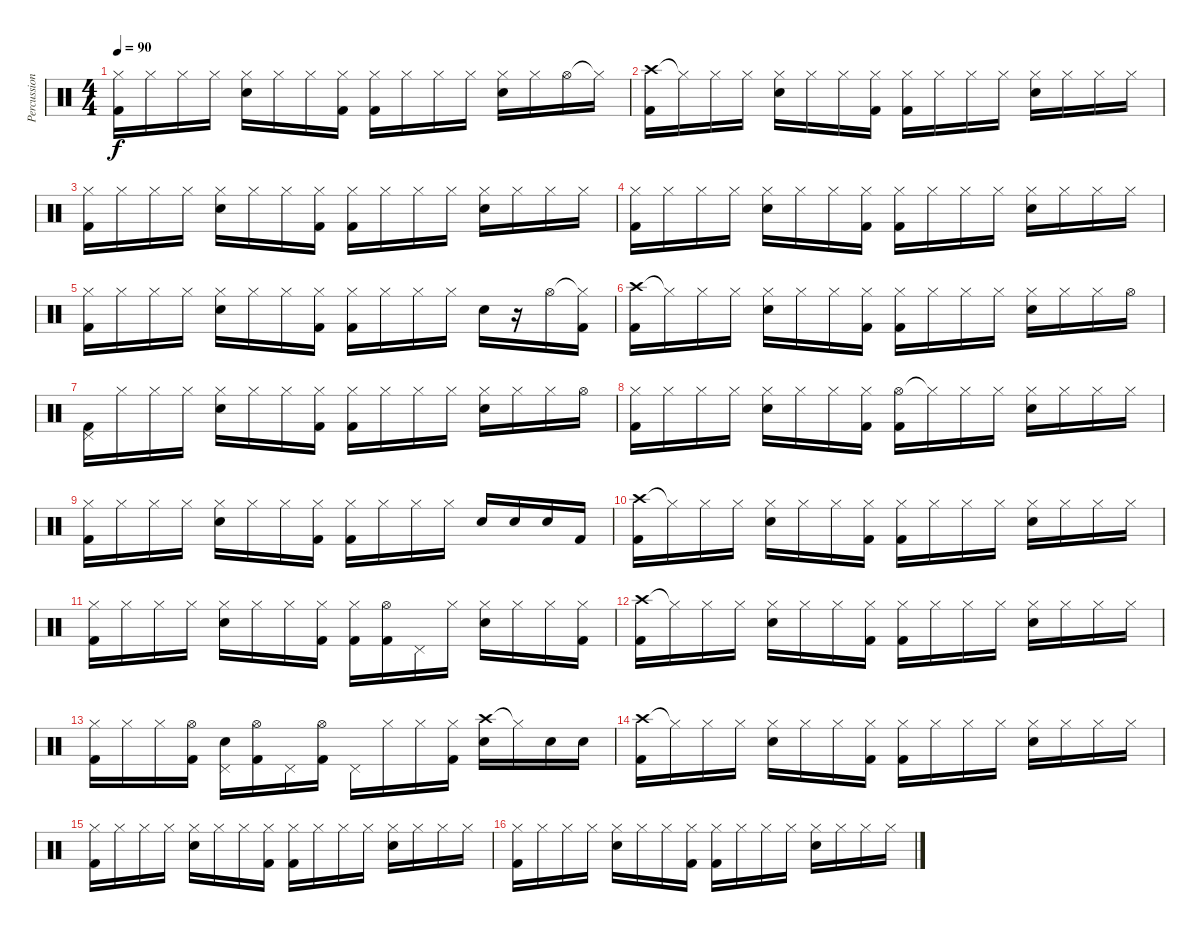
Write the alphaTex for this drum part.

\track ("Percussion" "Percussion") {instrument percussion}
\staff {score}
\articulation defaults
\ts (4 4)
\tempo 90
\clef neutral
\ks c
("Hi-Hat (closed)" "Kick (hit) 2").16{dy f} "Hi-Hat (closed)".16 "Hi-Hat (closed)".16 "Hi-Hat (closed)".16 ("Hi-Hat (closed)" "Electric Snare (hit)").16 "Hi-Hat (closed)".16 "Hi-Hat (closed)".16 ("Hi-Hat (closed)" "Kick (hit) 2").16 ("Hi-Hat (closed)" "Kick (hit) 2").16 "Hi-Hat (closed)".16 "Hi-Hat (closed)".16 "Hi-Hat (closed)".16 ("Hi-Hat (closed)" "Electric Snare (hit)").16 "Hi-Hat (closed)".16 "Hi-Hat (open)".16 "Hi-Hat (closed)"{t}.16 |
("Crash high (hit)" "Kick (hit) 2").16 "Hi-Hat (closed)"{t}.16 "Hi-Hat (closed)".16 "Hi-Hat (closed)".16 ("Hi-Hat (closed)" "Electric Snare (hit)").16 "Hi-Hat (closed)".16 "Hi-Hat (closed)".16 ("Hi-Hat (closed)" "Kick (hit) 2").16 ("Hi-Hat (closed)" "Kick (hit) 2").16 "Hi-Hat (closed)".16 "Hi-Hat (closed)".16 "Hi-Hat (closed)".16 ("Hi-Hat (closed)" "Electric Snare (hit)").16 "Hi-Hat (closed)".16 "Hi-Hat (closed)".16 "Hi-Hat (closed)".16 |
("Hi-Hat (closed)" "Kick (hit) 2").16 "Hi-Hat (closed)".16 "Hi-Hat (closed)".16 "Hi-Hat (closed)".16 ("Hi-Hat (closed)" "Electric Snare (hit)").16 "Hi-Hat (closed)".16 "Hi-Hat (closed)".16 ("Hi-Hat (closed)" "Kick (hit) 2").16 ("Hi-Hat (closed)" "Kick (hit) 2").16 "Hi-Hat (closed)".16 "Hi-Hat (closed)".16 "Hi-Hat (closed)".16 ("Hi-Hat (closed)" "Electric Snare (hit)").16 "Hi-Hat (closed)".16 "Hi-Hat (closed)".16 "Hi-Hat (closed)".16 |
("Hi-Hat (closed)" "Kick (hit) 2").16 "Hi-Hat (closed)".16 "Hi-Hat (closed)".16 "Hi-Hat (closed)".16 ("Hi-Hat (closed)" "Electric Snare (hit)").16 "Hi-Hat (closed)".16 "Hi-Hat (closed)".16 ("Hi-Hat (closed)" "Kick (hit) 2").16 ("Hi-Hat (closed)" "Kick (hit) 2").16 "Hi-Hat (closed)".16 "Hi-Hat (closed)".16 "Hi-Hat (closed)".16 ("Hi-Hat (closed)" "Electric Snare (hit)").16 "Hi-Hat (closed)".16 "Hi-Hat (closed)".16 "Hi-Hat (closed)".16 |
("Hi-Hat (closed)" "Kick (hit) 2").16 "Hi-Hat (closed)".16 "Hi-Hat (closed)".16 "Hi-Hat (closed)".16 ("Hi-Hat (closed)" "Electric Snare (hit)").16 "Hi-Hat (closed)".16 "Hi-Hat (closed)".16 ("Hi-Hat (closed)" "Kick (hit) 2").16 ("Hi-Hat (closed)" "Kick (hit) 2").16 "Hi-Hat (closed)".16 "Hi-Hat (closed)".16 "Hi-Hat (closed)".16 "Electric Snare (hit)".16 r.16 "Hi-Hat (open)".16 ("Hi-Hat (closed)"{t} "Kick (hit) 2").16 |
("Crash high (hit)" "Kick (hit) 2").16 "Hi-Hat (closed)"{t}.16 "Hi-Hat (closed)".16 "Hi-Hat (closed)".16 ("Hi-Hat (closed)" "Electric Snare (hit)").16 "Hi-Hat (closed)".16 "Hi-Hat (closed)".16 ("Hi-Hat (closed)" "Kick (hit) 2").16 ("Hi-Hat (closed)" "Kick (hit) 2").16 "Hi-Hat (closed)".16 "Hi-Hat (closed)".16 "Hi-Hat (closed)".16 ("Hi-Hat (closed)" "Electric Snare (hit)").16 "Hi-Hat (closed)".16 "Hi-Hat (closed)".16 "Hi-Hat (open)".16 |
("Pedal Hi-Hat (hit)" "Kick (hit) 2").16 "Hi-Hat (closed)".16 "Hi-Hat (closed)".16 "Hi-Hat (closed)".16 ("Hi-Hat (closed)" "Electric Snare (hit)").16 "Hi-Hat (closed)".16 "Hi-Hat (closed)".16 ("Hi-Hat (closed)" "Kick (hit) 2").16 ("Hi-Hat (closed)" "Kick (hit) 2").16 "Hi-Hat (closed)".16 "Hi-Hat (closed)".16 "Hi-Hat (closed)".16 ("Hi-Hat (closed)" "Electric Snare (hit)").16 "Hi-Hat (closed)".16 "Hi-Hat (closed)".16 "Hi-Hat (open)".16 |
("Hi-Hat (closed)" "Kick (hit) 2").16 "Hi-Hat (closed)".16 "Hi-Hat (closed)".16 "Hi-Hat (closed)".16 ("Hi-Hat (closed)" "Electric Snare (hit)").16 "Hi-Hat (closed)".16 "Hi-Hat (closed)".16 ("Hi-Hat (closed)" "Kick (hit) 2").16 ("Hi-Hat (open)" "Kick (hit) 2").16 "Hi-Hat (closed)"{t}.16 "Hi-Hat (closed)".16 "Hi-Hat (closed)".16 ("Hi-Hat (closed)" "Electric Snare (hit)").16 "Hi-Hat (closed)".16 "Hi-Hat (closed)".16 "Hi-Hat (closed)".16 |
("Hi-Hat (closed)" "Kick (hit) 2").16 "Hi-Hat (closed)".16 "Hi-Hat (closed)".16 "Hi-Hat (closed)".16 ("Hi-Hat (closed)" "Electric Snare (hit)").16 "Hi-Hat (closed)".16 "Hi-Hat (closed)".16 ("Hi-Hat (closed)" "Kick (hit) 2").16 ("Hi-Hat (closed)" "Kick (hit) 2").16 "Hi-Hat (closed)".16 "Hi-Hat (closed)".16 "Hi-Hat (closed)".16 "Electric Snare (hit)".16 "Electric Snare (hit)".16 "Electric Snare (hit)".16 "Kick (hit) 2".16 |
("Crash high (hit)" "Kick (hit) 2").16 "Hi-Hat (closed)"{t}.16 "Hi-Hat (closed)".16 "Hi-Hat (closed)".16 ("Hi-Hat (closed)" "Electric Snare (hit)").16 "Hi-Hat (closed)".16 "Hi-Hat (closed)".16 ("Hi-Hat (closed)" "Kick (hit) 2").16 ("Hi-Hat (closed)" "Kick (hit) 2").16 "Hi-Hat (closed)".16 "Hi-Hat (closed)".16 "Hi-Hat (closed)".16 ("Hi-Hat (closed)" "Electric Snare (hit)").16 "Hi-Hat (closed)".16 "Hi-Hat (closed)".16 "Hi-Hat (closed)".16 |
("Hi-Hat (closed)" "Kick (hit) 2").16 "Hi-Hat (closed)".16 "Hi-Hat (closed)".16 "Hi-Hat (closed)".16 ("Hi-Hat (closed)" "Electric Snare (hit)").16 "Hi-Hat (closed)".16 "Hi-Hat (closed)".16 ("Hi-Hat (closed)" "Kick (hit) 2").16 ("Hi-Hat (closed)" "Kick (hit) 2").16 ("Hi-Hat (open)" "Kick (hit) 2").16 "Pedal Hi-Hat (hit)".16 "Hi-Hat (closed)".16 ("Hi-Hat (closed)" "Electric Snare (hit)").16 "Hi-Hat (closed)".16 "Hi-Hat (closed)".16 ("Hi-Hat (closed)" "Kick (hit) 2").16 |
("Crash high (hit)" "Kick (hit) 2").16 "Hi-Hat (closed)"{t}.16 "Hi-Hat (closed)".16 "Hi-Hat (closed)".16 ("Hi-Hat (closed)" "Electric Snare (hit)").16 "Hi-Hat (closed)".16 "Hi-Hat (closed)".16 ("Hi-Hat (closed)" "Kick (hit) 2").16 ("Hi-Hat (closed)" "Kick (hit) 2").16 "Hi-Hat (closed)".16 "Hi-Hat (closed)".16 "Hi-Hat (closed)".16 ("Hi-Hat (closed)" "Electric Snare (hit)").16 "Hi-Hat (closed)".16 "Hi-Hat (closed)".16 "Hi-Hat (closed)".16 |
("Hi-Hat (closed)" "Kick (hit) 2").16 "Hi-Hat (closed)".16 "Hi-Hat (closed)".16 ("Hi-Hat (open)" "Kick (hit) 2").16 ("Pedal Hi-Hat (hit)" "Electric Snare (hit)").16 ("Hi-Hat (open)" "Kick (hit) 2").16 "Pedal Hi-Hat (hit)".16 ("Hi-Hat (open)" "Kick (hit) 2").16 "Pedal Hi-Hat (hit)".16 "Hi-Hat (closed)".16 "Hi-Hat (closed)".16 ("Hi-Hat (closed)" "Kick (hit) 2").16 ("Crash high (hit)" "Electric Snare (hit)").16 "Hi-Hat (closed)"{t}.16 "Electric Snare (hit)".16 "Electric Snare (hit)".16 |
("Crash high (hit)" "Kick (hit) 2").16 "Hi-Hat (closed)"{t}.16 "Hi-Hat (closed)".16 "Hi-Hat (closed)".16 ("Hi-Hat (closed)" "Electric Snare (hit)").16 "Hi-Hat (closed)".16 "Hi-Hat (closed)".16 ("Hi-Hat (closed)" "Kick (hit) 2").16 ("Hi-Hat (closed)" "Kick (hit) 2").16 "Hi-Hat (closed)".16 "Hi-Hat (closed)".16 "Hi-Hat (closed)".16 ("Hi-Hat (closed)" "Electric Snare (hit)").16 "Hi-Hat (closed)".16 "Hi-Hat (closed)".16 "Hi-Hat (closed)".16 |
("Hi-Hat (closed)" "Kick (hit) 2").16 "Hi-Hat (closed)".16 "Hi-Hat (closed)".16 "Hi-Hat (closed)".16 ("Hi-Hat (closed)" "Electric Snare (hit)").16 "Hi-Hat (closed)".16 "Hi-Hat (closed)".16 ("Hi-Hat (closed)" "Kick (hit) 2").16 ("Hi-Hat (closed)" "Kick (hit) 2").16 "Hi-Hat (closed)".16 "Hi-Hat (closed)".16 "Hi-Hat (closed)".16 ("Hi-Hat (closed)" "Electric Snare (hit)").16 "Hi-Hat (closed)".16 "Hi-Hat (closed)".16 "Hi-Hat (closed)".16 |
("Hi-Hat (closed)" "Kick (hit) 2").16 "Hi-Hat (closed)".16 "Hi-Hat (closed)".16 "Hi-Hat (closed)".16 ("Hi-Hat (closed)" "Electric Snare (hit)").16 "Hi-Hat (closed)".16 "Hi-Hat (closed)".16 ("Hi-Hat (closed)" "Kick (hit) 2").16 ("Hi-Hat (closed)" "Kick (hit) 2").16 "Hi-Hat (closed)".16 "Hi-Hat (closed)".16 "Hi-Hat (closed)".16 ("Hi-Hat (closed)" "Electric Snare (hit)").16 "Hi-Hat (closed)".16 "Hi-Hat (closed)".16 "Hi-Hat (closed)".16
